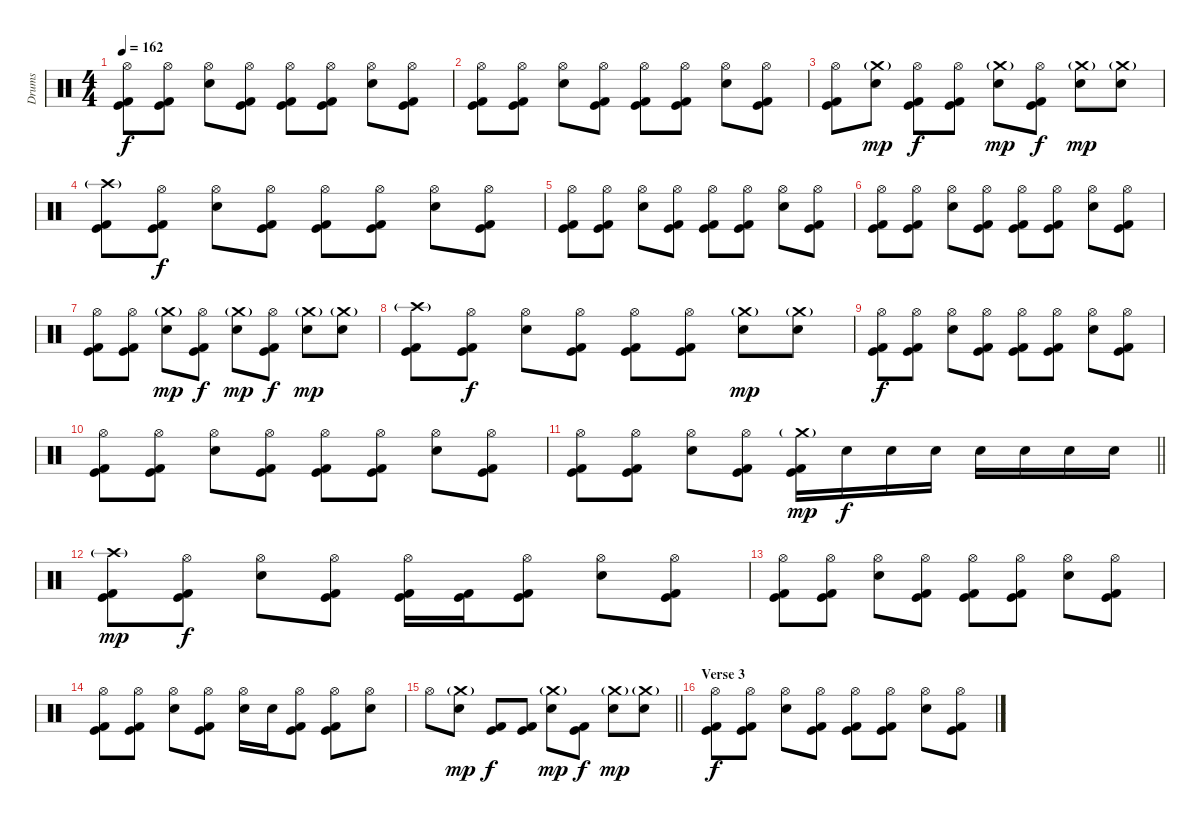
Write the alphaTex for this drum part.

\track ("Drums" "Drums") {instrument percussion}
\staff {score}
\articulation defaults
\ts (4 4)
\tempo 162
\clef neutral
\ks c
("Hi-Hat (open)" "Kick (hit)" "Kick (hit) 2").8{dy f} ("Hi-Hat (open)" "Kick (hit)" "Kick (hit) 2").8 ("Hi-Hat (open)" "Electric Snare (hit)").8 ("Hi-Hat (open)" "Kick (hit)" "Kick (hit) 2").8 ("Hi-Hat (open)" "Kick (hit)" "Kick (hit) 2").8 ("Hi-Hat (open)" "Kick (hit)" "Kick (hit) 2").8 ("Hi-Hat (open)" "Electric Snare (hit)").8 ("Hi-Hat (open)" "Kick (hit)" "Kick (hit) 2").8 |
("Hi-Hat (open)" "Kick (hit)" "Kick (hit) 2").8 ("Hi-Hat (open)" "Kick (hit)" "Kick (hit) 2").8 ("Hi-Hat (open)" "Electric Snare (hit)").8 ("Hi-Hat (open)" "Kick (hit)" "Kick (hit) 2").8 ("Hi-Hat (open)" "Kick (hit)" "Kick (hit) 2").8 ("Hi-Hat (open)" "Kick (hit)" "Kick (hit) 2").8 ("Hi-Hat (open)" "Electric Snare (hit)").8 ("Hi-Hat (open)" "Kick (hit)" "Kick (hit) 2").8 |
("Hi-Hat (open)" "Kick (hit)" "Kick (hit) 2").8 ("Crash medium (hit)"{g} "Electric Snare (hit)").8{dy mp} ("Hi-Hat (open)" "Kick (hit)" "Kick (hit) 2").8{dy f} ("Hi-Hat (open)" "Kick (hit)" "Kick (hit) 2").8 ("Crash medium (hit)"{g} "Electric Snare (hit)").8{dy mp} ("Hi-Hat (open)" "Kick (hit)" "Kick (hit) 2").8{dy f} ("Crash medium (hit)"{g} "Electric Snare (hit)").8{dy mp} ("Crash medium (hit)"{g} "Electric Snare (hit)").8 |
("Crash high (hit)"{g} "Kick (hit)" "Kick (hit) 2").8 ("Hi-Hat (open)" "Kick (hit)" "Kick (hit) 2").8{dy f} ("Hi-Hat (open)" "Electric Snare (hit)").8 ("Hi-Hat (open)" "Kick (hit)" "Kick (hit) 2").8 ("Hi-Hat (open)" "Kick (hit)" "Kick (hit) 2").8 ("Hi-Hat (open)" "Kick (hit)" "Kick (hit) 2").8 ("Hi-Hat (open)" "Electric Snare (hit)").8 ("Hi-Hat (open)" "Kick (hit)" "Kick (hit) 2").8 |
("Hi-Hat (open)" "Kick (hit)" "Kick (hit) 2").8 ("Hi-Hat (open)" "Kick (hit)" "Kick (hit) 2").8 ("Hi-Hat (open)" "Electric Snare (hit)").8 ("Hi-Hat (open)" "Kick (hit)" "Kick (hit) 2").8 ("Hi-Hat (open)" "Kick (hit)" "Kick (hit) 2").8 ("Hi-Hat (open)" "Kick (hit)" "Kick (hit) 2").8 ("Hi-Hat (open)" "Electric Snare (hit)").8 ("Hi-Hat (open)" "Kick (hit)" "Kick (hit) 2").8 |
("Hi-Hat (open)" "Kick (hit)" "Kick (hit) 2").8 ("Hi-Hat (open)" "Kick (hit)" "Kick (hit) 2").8 ("Hi-Hat (open)" "Electric Snare (hit)").8 ("Hi-Hat (open)" "Kick (hit)" "Kick (hit) 2").8 ("Hi-Hat (open)" "Kick (hit)" "Kick (hit) 2").8 ("Hi-Hat (open)" "Kick (hit)" "Kick (hit) 2").8 ("Hi-Hat (open)" "Electric Snare (hit)").8 ("Hi-Hat (open)" "Kick (hit)" "Kick (hit) 2").8 |
("Hi-Hat (open)" "Kick (hit)" "Kick (hit) 2").8 ("Hi-Hat (open)" "Kick (hit)" "Kick (hit) 2").8 ("Crash medium (hit)"{g} "Electric Snare (hit)").8{dy mp} ("Hi-Hat (open)" "Kick (hit)" "Kick (hit) 2").8{dy f} ("Crash medium (hit)"{g} "Electric Snare (hit)").8{dy mp} ("Hi-Hat (open)" "Kick (hit)" "Kick (hit) 2").8{dy f} ("Crash medium (hit)"{g} "Electric Snare (hit)").8{dy mp} ("Crash medium (hit)"{g} "Electric Snare (hit)").8 |
("Crash high (hit)"{g} "Kick (hit)" "Kick (hit) 2").8 ("Hi-Hat (open)" "Kick (hit)" "Kick (hit) 2").8{dy f} ("Hi-Hat (open)" "Electric Snare (hit)").8 ("Hi-Hat (open)" "Kick (hit)" "Kick (hit) 2").8 ("Hi-Hat (open)" "Kick (hit)" "Kick (hit) 2").8 ("Hi-Hat (open)" "Kick (hit)" "Kick (hit) 2").8 ("Crash medium (hit)"{g} "Electric Snare (hit)").8{dy mp} ("Crash medium (hit)"{g} "Electric Snare (hit)").8 |
("Hi-Hat (open)" "Kick (hit)" "Kick (hit) 2").8{dy f} ("Hi-Hat (open)" "Kick (hit)" "Kick (hit) 2").8 ("Hi-Hat (open)" "Electric Snare (hit)").8 ("Hi-Hat (open)" "Kick (hit)" "Kick (hit) 2").8 ("Hi-Hat (open)" "Kick (hit)" "Kick (hit) 2").8 ("Hi-Hat (open)" "Kick (hit)" "Kick (hit) 2").8 ("Hi-Hat (open)" "Electric Snare (hit)").8 ("Hi-Hat (open)" "Kick (hit)" "Kick (hit) 2").8 |
("Hi-Hat (open)" "Kick (hit)" "Kick (hit) 2").8 ("Hi-Hat (open)" "Kick (hit)" "Kick (hit) 2").8 ("Hi-Hat (open)" "Electric Snare (hit)").8 ("Hi-Hat (open)" "Kick (hit)" "Kick (hit) 2").8 ("Hi-Hat (open)" "Kick (hit)" "Kick (hit) 2").8 ("Hi-Hat (open)" "Kick (hit)" "Kick (hit) 2").8 ("Hi-Hat (open)" "Electric Snare (hit)").8 ("Hi-Hat (open)" "Kick (hit)" "Kick (hit) 2").8 |
\barLineRight lightlight
("Hi-Hat (open)" "Kick (hit)" "Kick (hit) 2").8 ("Hi-Hat (open)" "Kick (hit)" "Kick (hit) 2").8 ("Hi-Hat (open)" "Electric Snare (hit)").8 ("Hi-Hat (open)" "Kick (hit)" "Kick (hit) 2").8 ("Crash medium (hit)"{g} "Kick (hit)" "Kick (hit) 2").16{dy mp} "Electric Snare (hit)".16{dy f} "Electric Snare (hit)".16 "Electric Snare (hit)".16 "Electric Snare (hit)".16 "Electric Snare (hit)".16 "Electric Snare (hit)".16 "Electric Snare (hit)".16 |
\section ("" "")
("Crash high (hit)"{g} "Kick (hit)" "Kick (hit) 2").8{dy mp} ("Hi-Hat (open)" "Kick (hit)" "Kick (hit) 2").8{dy f} ("Hi-Hat (open)" "Electric Snare (hit)").8 ("Hi-Hat (open)" "Kick (hit)" "Kick (hit) 2").8 ("Hi-Hat (open)" "Kick (hit)" "Kick (hit) 2").16 ("Kick (hit)" "Kick (hit) 2").16 ("Hi-Hat (open)" "Kick (hit)" "Kick (hit) 2").8 ("Hi-Hat (open)" "Electric Snare (hit)").8 ("Hi-Hat (open)" "Kick (hit)" "Kick (hit) 2").8 |
("Hi-Hat (open)" "Kick (hit)" "Kick (hit) 2").8 ("Hi-Hat (open)" "Kick (hit)" "Kick (hit) 2").8 ("Hi-Hat (open)" "Electric Snare (hit)").8 ("Hi-Hat (open)" "Kick (hit)" "Kick (hit) 2").8 ("Hi-Hat (open)" "Kick (hit)" "Kick (hit) 2").8 ("Hi-Hat (open)" "Kick (hit)" "Kick (hit) 2").8 ("Hi-Hat (open)" "Electric Snare (hit)").8 ("Hi-Hat (open)" "Kick (hit)" "Kick (hit) 2").8 |
("Hi-Hat (open)" "Kick (hit)" "Kick (hit) 2").8 ("Hi-Hat (open)" "Kick (hit)" "Kick (hit) 2").8 ("Hi-Hat (open)" "Electric Snare (hit)").8 ("Hi-Hat (open)" "Kick (hit)" "Kick (hit) 2").8 ("Hi-Hat (open)" "Electric Snare (hit)").16 "Electric Snare (hit)".16 ("Hi-Hat (open)" "Kick (hit)" "Kick (hit) 2").8 ("Hi-Hat (open)" "Kick (hit)" "Kick (hit) 2").8 ("Hi-Hat (open)" "Electric Snare (hit)").8 |
\barLineRight lightlight "Hi-Hat (open)".8
("Crash medium (hit)"{g} "Electric Snare (hit)").8{dy mp} ("Kick (hit)" "Kick (hit) 2").8{dy f} ("Kick (hit)" "Kick (hit) 2").8 ("Crash medium (hit)"{g} "Electric Snare (hit)").8{dy mp} ("Kick (hit)" "Kick (hit) 2").8{dy f} ("Crash medium (hit)"{g} "Electric Snare (hit)").8{dy mp} ("Crash medium (hit)"{g} "Electric Snare (hit)").8 |
\section ("" "Verse 3")
("Hi-Hat (open)" "Kick (hit)" "Kick (hit) 2").8{dy f} ("Hi-Hat (open)" "Kick (hit)" "Kick (hit) 2").8 ("Hi-Hat (open)" "Electric Snare (hit)").8 ("Hi-Hat (open)" "Kick (hit)" "Kick (hit) 2").8 ("Hi-Hat (open)" "Kick (hit)" "Kick (hit) 2").8 ("Hi-Hat (open)" "Kick (hit)" "Kick (hit) 2").8 ("Hi-Hat (open)" "Electric Snare (hit)").8 ("Hi-Hat (open)" "Kick (hit)" "Kick (hit) 2").8
